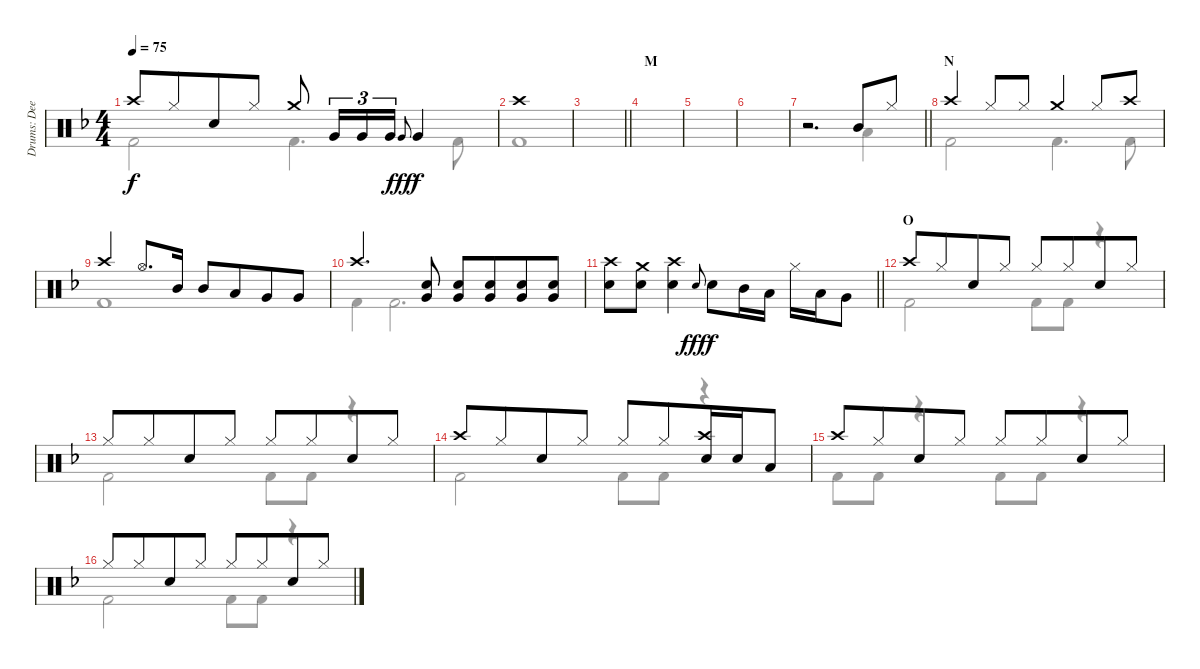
\track ("Drums: Deen" "Drums: Dee") {instrument percussion}
\staff {score}
\articulation defaults
\voice
\ts (4 4)
\tempo 75
\clef neutral
\ks f "Crash high (hit)".8{dy f} "Hi-Hat (closed)".8{beam merge} "Snare (hit) 2".8 "Hi-Hat (closed)".8 "Crash medium (hit)".8 "Very Low Tom (hit)".16{tu (3 2) beam merge} "Very Low Tom (hit)".16{tu (3 2)} "Very Low Tom (hit)".16{tu (3 2)} "Very Low Tom (hit)".8{gr onbeat dy fff} "Very Low Tom (hit)".4{dy f}
|
"Crash high (hit)".1 |
\barLineRight lightlight
|
\section ("" "M")
|
|
|
\barLineRight lightlight
r.2{d} "Mid Tom (hit)".8 "Hi-Hat (closed)".8 |
\section ("" "N")
"Crash high (hit)".4 "Hi-Hat (closed)".8 "Hi-Hat (closed)".8 "Crash medium (hit)".4 "Hi-Hat (closed)".8 "Crash high (hit)".8 |
"Crash high (hit)".4 "Hi-Hat (open)".8{d} "Mid Tom (hit)".16 "Mid Tom (hit)".8 "Low Tom (hit)".8{beam merge} "Very Low Tom (hit)".8 "Very Low Tom (hit)".8 |
"Crash high (hit)".4{d} ("Snare (hit) 2" "Very Low Tom (hit)").8 ("Snare (hit) 2" "Very Low Tom (hit)").8 ("Snare (hit) 2" "Very Low Tom (hit)").8{beam merge} ("Snare (hit) 2" "Very Low Tom (hit)").8 ("Snare (hit) 2" "Very Low Tom (hit)").8 |
\barLineRight lightlight
("Crash high (hit)" "Snare (hit) 2").8 ("Crash medium (hit)" "Snare (hit) 2").8 ("Crash high (hit)" "Snare (hit) 2").4 "Electric Snare (hit)".8{gr onbeat dy fff} "Snare (hit) 2".8{dy f} "Mid Tom (hit)".16 "Low Tom (hit)".16 "Hi-Hat (closed)".16 "Low Tom (hit)".16 "Very Low Tom (hit)".8 |
\section ("" "O")
"Crash high (hit)".8 "Hi-Hat (closed)".8{beam merge} "Snare (hit) 2".8 "Hi-Hat (closed)".8 "Hi-Hat (closed)".8 "Hi-Hat (closed)".8{beam merge} "Snare (hit) 2".8 "Hi-Hat (closed)".8 |
"Hi-Hat (closed)".8 "Hi-Hat (closed)".8{beam merge} "Snare (hit) 2".8 "Hi-Hat (closed)".8 "Hi-Hat (closed)".8 "Hi-Hat (closed)".8{beam merge} "Snare (hit) 2".8 "Hi-Hat (closed)".8 |
"Crash high (hit)".8 "Hi-Hat (closed)".8{beam merge} "Snare (hit) 2".8 "Hi-Hat (closed)".8 "Hi-Hat (closed)".8 "Hi-Hat (closed)".8{beam merge} ("Crash high (hit)" "Snare (hit) 2").16 "Snare (hit) 2".16 "Low Tom (hit)".8 |
"Crash high (hit)".8 "Hi-Hat (closed)".8{beam merge} "Snare (hit) 2".8 "Hi-Hat (closed)".8 "Hi-Hat (closed)".8 "Hi-Hat (closed)".8{beam merge} "Snare (hit) 2".8 "Hi-Hat (closed)".8 |
"Hi-Hat (closed)".8 "Hi-Hat (closed)".8{beam merge} "Snare (hit) 2".8 "Hi-Hat (closed)".8 "Hi-Hat (closed)".8 "Hi-Hat (closed)".8{beam merge} "Snare (hit) 2".8 "Hi-Hat (closed)".8
\voice
\clef neutral
\ottava regular
\simile none
\ks f "Kick (hit) 2".2{dy f} "Kick (hit) 2".4{d} "Kick (hit) 2".8
|
"Kick (hit) 2".1 |
\barLineRight lightlight
|
|
|
|
\barLineRight lightlight
r.2{d} "Low Tom (hit)".4 |
"Kick (hit) 2".2 "Kick (hit) 2".4{d} "Kick (hit) 2".8 |
"Kick (hit) 2".1 |
"Kick (hit) 2".4 "Kick (hit) 2".2{d} |
\barLineRight lightlight
|
"Kick (hit) 2".2 "Kick (hit) 2".8 "Kick (hit) 2".8 r.4 |
"Kick (hit) 2".2 "Kick (hit) 2".8 "Kick (hit) 2".8 r.4 |
"Kick (hit) 2".2 "Kick (hit) 2".8 "Kick (hit) 2".8 r.4 |
"Kick (hit) 2".8 "Kick (hit) 2".8 r.4 "Kick (hit) 2".8 "Kick (hit) 2".8 r.4 |
"Kick (hit) 2".2 "Kick (hit) 2".8 "Kick (hit) 2".8 r.4
